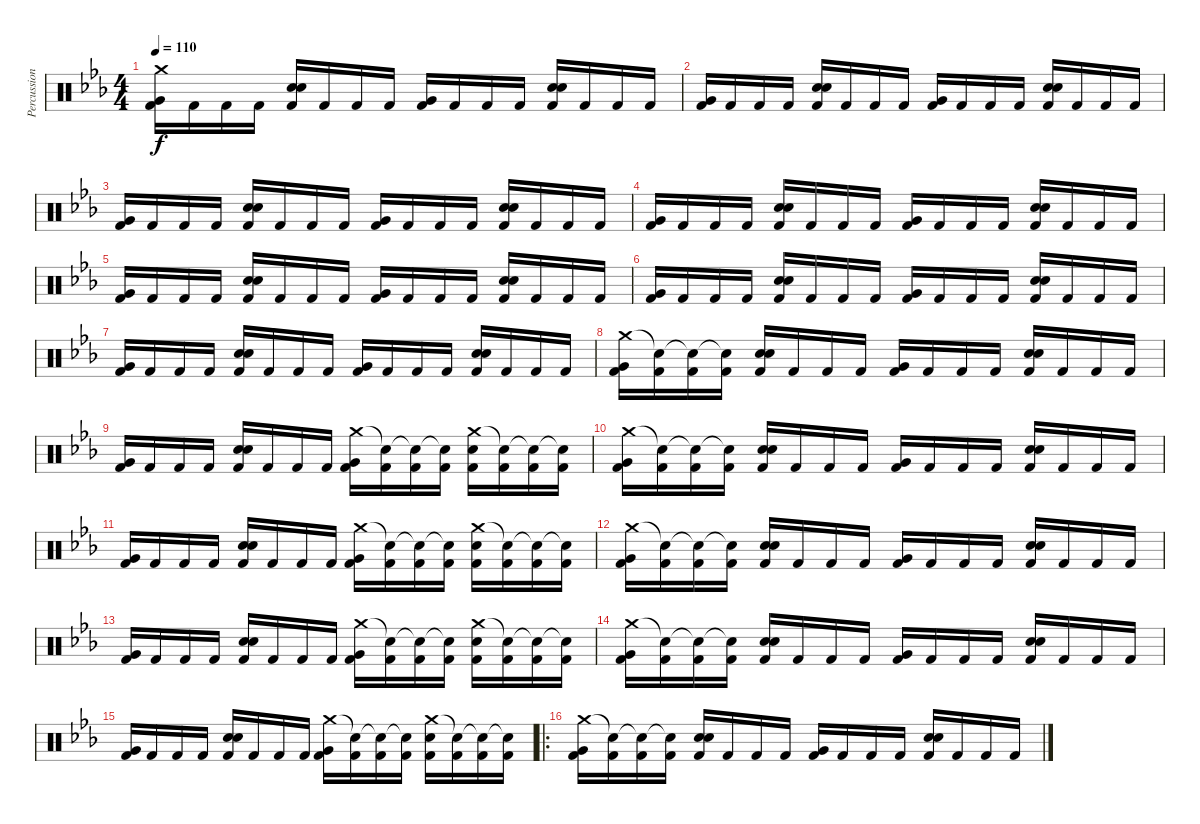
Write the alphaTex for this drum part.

\track ("Percussions" "Percussion") {instrument percussion}
\staff {score}
\articulation defaults
\ts (4 4)
\tempo 110
\clef neutral
\ks cminor
("Crash medium (hit)" "Very Low Tom (hit)" "Kick (hit) 2").16{dy f} "Kick (hit) 2".16 "Kick (hit) 2".16 "Kick (hit) 2".16 ("Electric Snare (hit)" "Electric Snare (hit)" "Kick (hit) 2").16 "Kick (hit) 2".16 "Kick (hit) 2".16 "Kick (hit) 2".16 ("Very Low Tom (hit)" "Kick (hit) 2").16 "Kick (hit) 2".16 "Kick (hit) 2".16 "Kick (hit) 2".16 ("Electric Snare (hit)" "Electric Snare (hit)" "Kick (hit) 2").16 "Kick (hit) 2".16 "Kick (hit) 2".16 "Kick (hit) 2".16 |
("Very Low Tom (hit)" "Kick (hit) 2").16 "Kick (hit) 2".16 "Kick (hit) 2".16 "Kick (hit) 2".16 ("Electric Snare (hit)" "Electric Snare (hit)" "Kick (hit) 2").16 "Kick (hit) 2".16 "Kick (hit) 2".16 "Kick (hit) 2".16 ("Very Low Tom (hit)" "Kick (hit) 2").16 "Kick (hit) 2".16 "Kick (hit) 2".16 "Kick (hit) 2".16 ("Electric Snare (hit)" "Electric Snare (hit)" "Kick (hit) 2").16 "Kick (hit) 2".16 "Kick (hit) 2".16 "Kick (hit) 2".16 |
("Very Low Tom (hit)" "Kick (hit) 2").16 "Kick (hit) 2".16 "Kick (hit) 2".16 "Kick (hit) 2".16 ("Electric Snare (hit)" "Electric Snare (hit)" "Kick (hit) 2").16 "Kick (hit) 2".16 "Kick (hit) 2".16 "Kick (hit) 2".16 ("Very Low Tom (hit)" "Kick (hit) 2").16 "Kick (hit) 2".16 "Kick (hit) 2".16 "Kick (hit) 2".16 ("Electric Snare (hit)" "Electric Snare (hit)" "Kick (hit) 2").16 "Kick (hit) 2".16 "Kick (hit) 2".16 "Kick (hit) 2".16 |
("Very Low Tom (hit)" "Kick (hit) 2").16 "Kick (hit) 2".16 "Kick (hit) 2".16 "Kick (hit) 2".16 ("Electric Snare (hit)" "Electric Snare (hit)" "Kick (hit) 2").16 "Kick (hit) 2".16 "Kick (hit) 2".16 "Kick (hit) 2".16 ("Very Low Tom (hit)" "Kick (hit) 2").16 "Kick (hit) 2".16 "Kick (hit) 2".16 "Kick (hit) 2".16 ("Electric Snare (hit)" "Electric Snare (hit)" "Kick (hit) 2").16 "Kick (hit) 2".16 "Kick (hit) 2".16 "Kick (hit) 2".16 |
("Very Low Tom (hit)" "Kick (hit) 2").16 "Kick (hit) 2".16 "Kick (hit) 2".16 "Kick (hit) 2".16 ("Electric Snare (hit)" "Electric Snare (hit)" "Kick (hit) 2").16 "Kick (hit) 2".16 "Kick (hit) 2".16 "Kick (hit) 2".16 ("Very Low Tom (hit)" "Kick (hit) 2").16 "Kick (hit) 2".16 "Kick (hit) 2".16 "Kick (hit) 2".16 ("Electric Snare (hit)" "Electric Snare (hit)" "Kick (hit) 2").16 "Kick (hit) 2".16 "Kick (hit) 2".16 "Kick (hit) 2".16 |
("Very Low Tom (hit)" "Kick (hit) 2").16 "Kick (hit) 2".16 "Kick (hit) 2".16 "Kick (hit) 2".16 ("Electric Snare (hit)" "Electric Snare (hit)" "Kick (hit) 2").16 "Kick (hit) 2".16 "Kick (hit) 2".16 "Kick (hit) 2".16 ("Very Low Tom (hit)" "Kick (hit) 2").16 "Kick (hit) 2".16 "Kick (hit) 2".16 "Kick (hit) 2".16 ("Electric Snare (hit)" "Electric Snare (hit)" "Kick (hit) 2").16 "Kick (hit) 2".16 "Kick (hit) 2".16 "Kick (hit) 2".16 |
("Very Low Tom (hit)" "Kick (hit) 2").16 "Kick (hit) 2".16 "Kick (hit) 2".16 "Kick (hit) 2".16 ("Electric Snare (hit)" "Electric Snare (hit)" "Kick (hit) 2").16 "Kick (hit) 2".16 "Kick (hit) 2".16 "Kick (hit) 2".16 ("Very Low Tom (hit)" "Kick (hit) 2").16 "Kick (hit) 2".16 "Kick (hit) 2".16 "Kick (hit) 2".16 ("Electric Snare (hit)" "Electric Snare (hit)" "Kick (hit) 2").16 "Kick (hit) 2".16 "Kick (hit) 2".16 "Kick (hit) 2".16 |
("Crash medium (hit)" "Very Low Tom (hit)" "Kick (hit) 2").16 ("Snare (hit)"{t} "Kick (hit) 2").16 ("Snare (hit)"{t} "Kick (hit) 2").16 ("Snare (hit)"{t} "Kick (hit) 2").16 ("Electric Snare (hit)" "Electric Snare (hit)" "Kick (hit) 2").16 "Kick (hit) 2".16 "Kick (hit) 2".16 "Kick (hit) 2".16 ("Very Low Tom (hit)" "Kick (hit) 2").16 "Kick (hit) 2".16 "Kick (hit) 2".16 "Kick (hit) 2".16 ("Electric Snare (hit)" "Electric Snare (hit)" "Kick (hit) 2").16 "Kick (hit) 2".16 "Kick (hit) 2".16 "Kick (hit) 2".16 |
("Very Low Tom (hit)" "Kick (hit) 2").16 "Kick (hit) 2".16 "Kick (hit) 2".16 "Kick (hit) 2".16 ("Electric Snare (hit)" "Electric Snare (hit)" "Kick (hit) 2").16 "Kick (hit) 2".16 "Kick (hit) 2".16 "Kick (hit) 2".16 ("Crash medium (hit)" "Very Low Tom (hit)" "Kick (hit) 2").16 ("Snare (hit)"{t} "Kick (hit) 2").16 ("Snare (hit)"{t} "Kick (hit) 2").16 ("Snare (hit)"{t} "Kick (hit) 2").16 ("Crash medium (hit)" "Electric Snare (hit)" "Kick (hit) 2").16 ("Snare (hit)"{t} "Kick (hit) 2").16 ("Snare (hit)"{t} "Kick (hit) 2").16 ("Snare (hit)"{t} "Kick (hit) 2").16 |
("Crash medium (hit)" "Very Low Tom (hit)" "Kick (hit) 2").16 ("Snare (hit)"{t} "Kick (hit) 2").16 ("Snare (hit)"{t} "Kick (hit) 2").16 ("Snare (hit)"{t} "Kick (hit) 2").16 ("Electric Snare (hit)" "Electric Snare (hit)" "Kick (hit) 2").16 "Kick (hit) 2".16 "Kick (hit) 2".16 "Kick (hit) 2".16 ("Very Low Tom (hit)" "Kick (hit) 2").16 "Kick (hit) 2".16 "Kick (hit) 2".16 "Kick (hit) 2".16 ("Electric Snare (hit)" "Electric Snare (hit)" "Kick (hit) 2").16 "Kick (hit) 2".16 "Kick (hit) 2".16 "Kick (hit) 2".16 |
("Very Low Tom (hit)" "Kick (hit) 2").16 "Kick (hit) 2".16 "Kick (hit) 2".16 "Kick (hit) 2".16 ("Electric Snare (hit)" "Electric Snare (hit)" "Kick (hit) 2").16 "Kick (hit) 2".16 "Kick (hit) 2".16 "Kick (hit) 2".16 ("Crash medium (hit)" "Very Low Tom (hit)" "Kick (hit) 2").16 ("Snare (hit)"{t} "Kick (hit) 2").16 ("Snare (hit)"{t} "Kick (hit) 2").16 ("Snare (hit)"{t} "Kick (hit) 2").16 ("Crash medium (hit)" "Electric Snare (hit)" "Kick (hit) 2").16 ("Snare (hit)"{t} "Kick (hit) 2").16 ("Snare (hit)"{t} "Kick (hit) 2").16 ("Snare (hit)"{t} "Kick (hit) 2").16 |
("Crash medium (hit)" "Very Low Tom (hit)" "Kick (hit) 2").16 ("Snare (hit)"{t} "Kick (hit) 2").16 ("Snare (hit)"{t} "Kick (hit) 2").16 ("Snare (hit)"{t} "Kick (hit) 2").16 ("Electric Snare (hit)" "Electric Snare (hit)" "Kick (hit) 2").16 "Kick (hit) 2".16 "Kick (hit) 2".16 "Kick (hit) 2".16 ("Very Low Tom (hit)" "Kick (hit) 2").16 "Kick (hit) 2".16 "Kick (hit) 2".16 "Kick (hit) 2".16 ("Electric Snare (hit)" "Electric Snare (hit)" "Kick (hit) 2").16 "Kick (hit) 2".16 "Kick (hit) 2".16 "Kick (hit) 2".16 |
("Very Low Tom (hit)" "Kick (hit) 2").16 "Kick (hit) 2".16 "Kick (hit) 2".16 "Kick (hit) 2".16 ("Electric Snare (hit)" "Electric Snare (hit)" "Kick (hit) 2").16 "Kick (hit) 2".16 "Kick (hit) 2".16 "Kick (hit) 2".16 ("Crash medium (hit)" "Very Low Tom (hit)" "Kick (hit) 2").16 ("Snare (hit)"{t} "Kick (hit) 2").16 ("Snare (hit)"{t} "Kick (hit) 2").16 ("Snare (hit)"{t} "Kick (hit) 2").16 ("Crash medium (hit)" "Electric Snare (hit)" "Kick (hit) 2").16 ("Snare (hit)"{t} "Kick (hit) 2").16 ("Snare (hit)"{t} "Kick (hit) 2").16 ("Snare (hit)"{t} "Kick (hit) 2").16 |
("Crash medium (hit)" "Very Low Tom (hit)" "Kick (hit) 2").16 ("Snare (hit)"{t} "Kick (hit) 2").16 ("Snare (hit)"{t} "Kick (hit) 2").16 ("Snare (hit)"{t} "Kick (hit) 2").16 ("Electric Snare (hit)" "Electric Snare (hit)" "Kick (hit) 2").16 "Kick (hit) 2".16 "Kick (hit) 2".16 "Kick (hit) 2".16 ("Very Low Tom (hit)" "Kick (hit) 2").16 "Kick (hit) 2".16 "Kick (hit) 2".16 "Kick (hit) 2".16 ("Electric Snare (hit)" "Electric Snare (hit)" "Kick (hit) 2").16 "Kick (hit) 2".16 "Kick (hit) 2".16 "Kick (hit) 2".16 |
("Very Low Tom (hit)" "Kick (hit) 2").16 "Kick (hit) 2".16 "Kick (hit) 2".16 "Kick (hit) 2".16 ("Electric Snare (hit)" "Electric Snare (hit)" "Kick (hit) 2").16 "Kick (hit) 2".16 "Kick (hit) 2".16 "Kick (hit) 2".16 ("Crash medium (hit)" "Very Low Tom (hit)" "Kick (hit) 2").16 ("Snare (hit)"{t} "Kick (hit) 2").16 ("Snare (hit)"{t} "Kick (hit) 2").16 ("Snare (hit)"{t} "Kick (hit) 2").16 ("Crash medium (hit)" "Electric Snare (hit)" "Kick (hit) 2").16 ("Snare (hit)"{t} "Kick (hit) 2").16 ("Snare (hit)"{t} "Kick (hit) 2").16 ("Snare (hit)"{t} "Kick (hit) 2").16 |
\ro
("Crash medium (hit)" "Very Low Tom (hit)" "Kick (hit) 2").16 ("Snare (hit)"{t} "Kick (hit) 2").16 ("Snare (hit)"{t} "Kick (hit) 2").16 ("Snare (hit)"{t} "Kick (hit) 2").16 ("Electric Snare (hit)" "Electric Snare (hit)" "Kick (hit) 2").16 "Kick (hit) 2".16 "Kick (hit) 2".16 "Kick (hit) 2".16 ("Very Low Tom (hit)" "Kick (hit) 2").16 "Kick (hit) 2".16 "Kick (hit) 2".16 "Kick (hit) 2".16 ("Electric Snare (hit)" "Electric Snare (hit)" "Kick (hit) 2").16 "Kick (hit) 2".16 "Kick (hit) 2".16 "Kick (hit) 2".16
